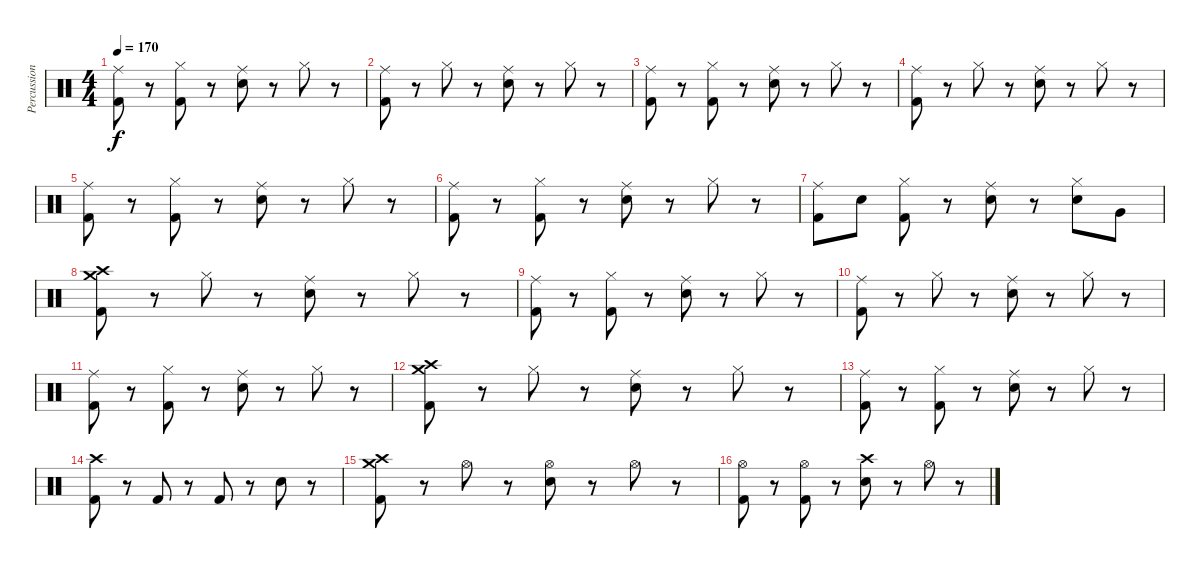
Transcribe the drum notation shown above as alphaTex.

\track ("Percussion" "Percussion") {instrument percussion}
\staff {score}
\articulation defaults
\ts (4 4)
\tempo 170
\clef neutral
\ks c
("Ride (middle)" "Kick (hit) 2").8{dy f} r.8 ("Hi-Hat (closed)" "Kick (hit) 2").8 r.8 ("Ride (middle)" "Electric Snare (hit)").8 r.8 "Hi-Hat (closed)".8 r.8 |
("Ride (middle)" "Kick (hit) 2").8 r.8 "Hi-Hat (closed)".8 r.8 ("Ride (middle)" "Electric Snare (hit)").8 r.8 "Hi-Hat (closed)".8 r.8 |
("Ride (middle)" "Kick (hit) 2").8 r.8 ("Hi-Hat (closed)" "Kick (hit) 2").8 r.8 ("Ride (middle)" "Electric Snare (hit)").8 r.8 "Hi-Hat (closed)".8 r.8 |
("Ride (middle)" "Kick (hit) 2").8 r.8 "Hi-Hat (closed)".8 r.8 ("Ride (middle)" "Electric Snare (hit)").8 r.8 "Hi-Hat (closed)".8 r.8 |
("Ride (middle)" "Kick (hit) 2").8 r.8 ("Hi-Hat (closed)" "Kick (hit) 2").8 r.8 ("Ride (middle)" "Electric Snare (hit)").8 r.8 "Hi-Hat (closed)".8 r.8 |
("Ride (middle)" "Kick (hit) 2").8 r.8 ("Hi-Hat (closed)" "Kick (hit) 2").8 r.8 ("Ride (middle)" "Electric Snare (hit)").8 r.8 "Hi-Hat (closed)".8 r.8 |
("Ride (middle)" "Kick (hit) 2").8 "Electric Snare (hit)".8 ("Hi-Hat (closed)" "Kick (hit) 2").8 r.8 ("Ride (middle)" "Electric Snare (hit)").8 r.8 ("Hi-Hat (closed)" "Electric Snare (hit)").8 "Very Low Tom (hit)".8 |
("Crash high (hit)" "Crash medium (hit)" "Kick (hit) 2").8 r.8 "Hi-Hat (closed)".8 r.8 ("Ride (middle)" "Electric Snare (hit)").8 r.8 "Hi-Hat (closed)".8 r.8 |
("Ride (middle)" "Kick (hit) 2").8 r.8 ("Hi-Hat (closed)" "Kick (hit) 2").8 r.8 ("Ride (middle)" "Electric Snare (hit)").8 r.8 "Hi-Hat (closed)".8 r.8 |
("Ride (middle)" "Kick (hit) 2").8 r.8 "Hi-Hat (closed)".8 r.8 ("Ride (middle)" "Electric Snare (hit)").8 r.8 "Hi-Hat (closed)".8 r.8 |
("Ride (middle)" "Kick (hit) 2").8 r.8 ("Hi-Hat (closed)" "Kick (hit) 2").8 r.8 ("Ride (middle)" "Electric Snare (hit)").8 r.8 "Hi-Hat (closed)".8 r.8 |
("Crash high (hit)" "Crash medium (hit)" "Kick (hit) 2").8 r.8 "Hi-Hat (closed)".8 r.8 ("Ride (middle)" "Electric Snare (hit)").8 r.8 "Hi-Hat (closed)".8 r.8 |
("Ride (middle)" "Kick (hit) 2").8 r.8 ("Hi-Hat (closed)" "Kick (hit) 2").8 r.8 ("Ride (middle)" "Electric Snare (hit)").8 r.8 "Hi-Hat (closed)".8 r.8 |
("Crash high (hit)" "Kick (hit) 2").8 r.8 "Kick (hit) 2".8 r.8 "Kick (hit) 2".8 r.8 "Electric Snare (hit)".8 r.8 |
("Crash high (hit)" "Crash medium (hit)" "Kick (hit) 2").8 r.8 "Hi-Hat (open)".8 r.8 ("Hi-Hat (open)" "Electric Snare (hit)").8 r.8 "Hi-Hat (open)".8 r.8 |
("Hi-Hat (open)" "Kick (hit) 2").8 r.8 ("Hi-Hat (open)" "Kick (hit) 2").8 r.8 ("Crash high (hit)" "Electric Snare (hit)").8 r.8 "Hi-Hat (open)".8 r.8
